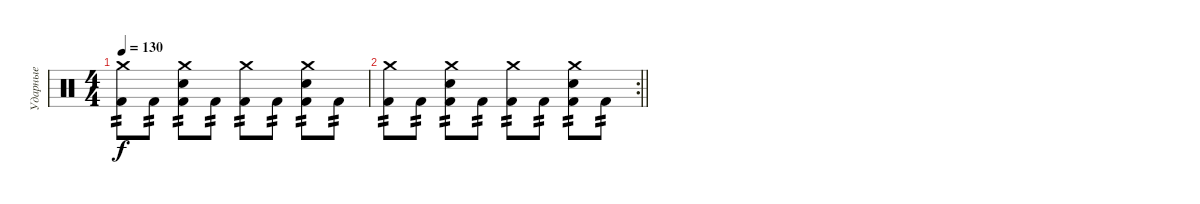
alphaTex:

\track ("Ударные" "Ударные") {instrument percussion}
\staff {score}
\articulation defaults
\ts (4 4)
\tempo 130
\clef neutral
\ks c
("Crash medium (hit)" "Kick (hit) 2").8{tp 2 dy f} "Kick (hit) 2".8{tp 2} ("Crash medium (hit)" "Kick (hit) 2" "Snare (hit) 2").8{tp 2} "Kick (hit) 2".8{tp 2} ("Crash medium (hit)" "Kick (hit) 2").8{tp 2} "Kick (hit) 2".8{tp 2} ("Crash medium (hit)" "Kick (hit) 2" "Snare (hit) 2").8{tp 2} "Kick (hit) 2".8{tp 2} |
\rc 2
\barLineRight lightlight
("Crash medium (hit)" "Kick (hit) 2").8{tp 2} "Kick (hit) 2".8{tp 2} ("Crash medium (hit)" "Kick (hit) 2" "Snare (hit) 2").8{tp 2} "Kick (hit) 2".8{tp 2} ("Crash medium (hit)" "Kick (hit) 2").8{tp 2} "Kick (hit) 2".8{tp 2} ("Crash medium (hit)" "Kick (hit) 2" "Snare (hit) 2").8{tp 2} "Kick (hit) 2".8{tp 2}
